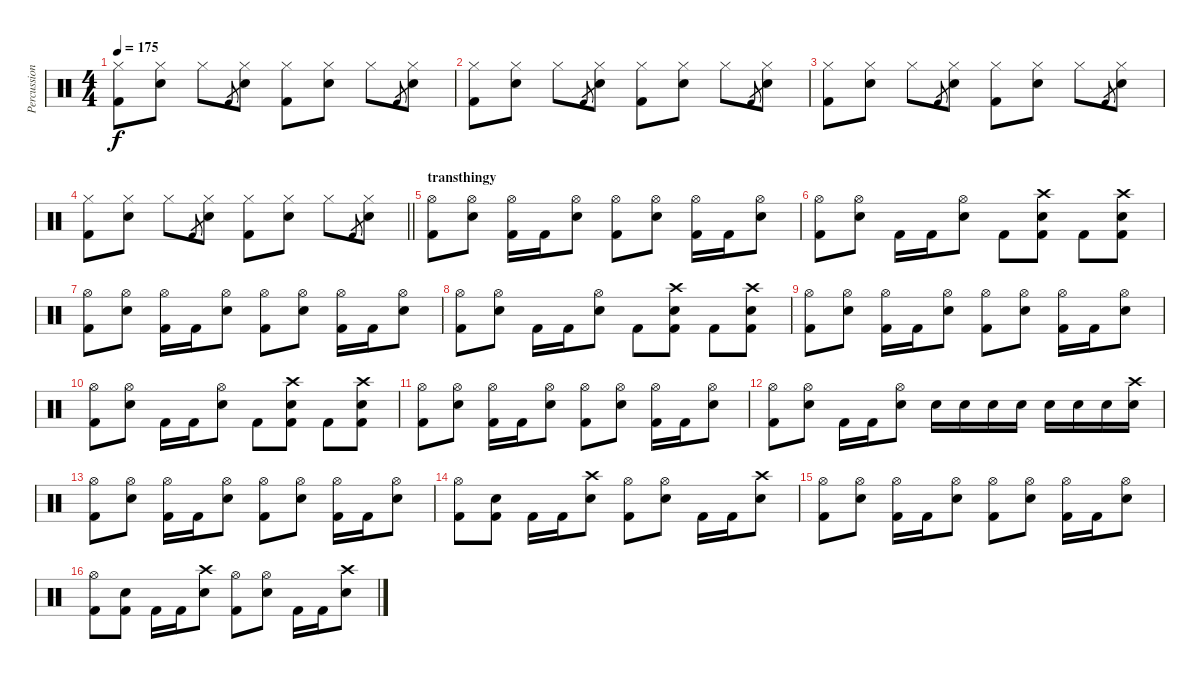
\track ("Percussion" "Percussion") {instrument percussion}
\staff {score}
\articulation defaults
\ts (4 4)
\tempo 175
\clef neutral
\ks c
("Hi-Hat (closed)" "Kick (hit) 2").8{dy f} ("Hi-Hat (closed)" "Electric Snare (hit)").8 "Hi-Hat (closed)".8 "Kick (hit) 2".8{gr} ("Hi-Hat (closed)" "Electric Snare (hit)").8 ("Hi-Hat (closed)" "Kick (hit) 2").8 ("Hi-Hat (closed)" "Electric Snare (hit)").8 "Hi-Hat (closed)".8 "Kick (hit) 2".8{gr} ("Hi-Hat (closed)" "Electric Snare (hit)").8 |
("Hi-Hat (closed)" "Kick (hit) 2").8 ("Hi-Hat (closed)" "Electric Snare (hit)").8 "Hi-Hat (closed)".8 "Kick (hit) 2".8{gr} ("Hi-Hat (closed)" "Electric Snare (hit)").8 ("Hi-Hat (closed)" "Kick (hit) 2").8 ("Hi-Hat (closed)" "Electric Snare (hit)").8 "Hi-Hat (closed)".8 "Kick (hit) 2".8{gr} ("Hi-Hat (closed)" "Electric Snare (hit)").8 |
("Hi-Hat (closed)" "Kick (hit) 2").8 ("Hi-Hat (closed)" "Electric Snare (hit)").8 "Hi-Hat (closed)".8 "Kick (hit) 2".8{gr} ("Hi-Hat (closed)" "Electric Snare (hit)").8 ("Hi-Hat (closed)" "Kick (hit) 2").8 ("Hi-Hat (closed)" "Electric Snare (hit)").8 "Hi-Hat (closed)".8 "Kick (hit) 2".8{gr} ("Hi-Hat (closed)" "Electric Snare (hit)").8 |
\barLineRight lightlight
("Hi-Hat (closed)" "Kick (hit) 2").8 ("Hi-Hat (closed)" "Electric Snare (hit)").8 "Hi-Hat (closed)".8 "Kick (hit) 2".8{gr} ("Hi-Hat (closed)" "Electric Snare (hit)").8 ("Hi-Hat (closed)" "Kick (hit) 2").8 ("Hi-Hat (closed)" "Electric Snare (hit)").8 "Hi-Hat (closed)".8 "Kick (hit) 2".8{gr} ("Hi-Hat (closed)" "Electric Snare (hit)").8 |
\section ("" "transthingy")
("Hi-Hat (open)" "Kick (hit) 2").8 ("Hi-Hat (open)" "Electric Snare (hit)").8 ("Hi-Hat (open)" "Kick (hit) 2").16 "Kick (hit) 2".16 ("Hi-Hat (open)" "Electric Snare (hit)").8 ("Hi-Hat (open)" "Kick (hit) 2").8 ("Hi-Hat (open)" "Electric Snare (hit)").8 ("Hi-Hat (open)" "Kick (hit) 2").16 "Kick (hit) 2".16 ("Hi-Hat (open)" "Electric Snare (hit)").8 |
("Hi-Hat (open)" "Kick (hit) 2").8 ("Hi-Hat (open)" "Electric Snare (hit)").8 "Kick (hit) 2".16 "Kick (hit) 2".16 ("Hi-Hat (open)" "Electric Snare (hit)").8 "Kick (hit) 2".8 ("Crash high (hit)" "Electric Snare (hit)" "Kick (hit) 2").8 "Kick (hit) 2".8 ("Crash high (hit)" "Electric Snare (hit)" "Kick (hit) 2").8 |
("Hi-Hat (open)" "Kick (hit) 2").8 ("Hi-Hat (open)" "Electric Snare (hit)").8 ("Hi-Hat (open)" "Kick (hit) 2").16 "Kick (hit) 2".16 ("Hi-Hat (open)" "Electric Snare (hit)").8 ("Hi-Hat (open)" "Kick (hit) 2").8 ("Hi-Hat (open)" "Electric Snare (hit)").8 ("Hi-Hat (open)" "Kick (hit) 2").16 "Kick (hit) 2".16 ("Hi-Hat (open)" "Electric Snare (hit)").8 |
("Hi-Hat (open)" "Kick (hit) 2").8 ("Hi-Hat (open)" "Electric Snare (hit)").8 "Kick (hit) 2".16 "Kick (hit) 2".16 ("Hi-Hat (open)" "Electric Snare (hit)").8 "Kick (hit) 2".8 ("Crash high (hit)" "Electric Snare (hit)" "Kick (hit) 2").8 "Kick (hit) 2".8 ("Crash high (hit)" "Electric Snare (hit)" "Kick (hit) 2").8 |
("Hi-Hat (open)" "Kick (hit) 2").8 ("Hi-Hat (open)" "Electric Snare (hit)").8 ("Hi-Hat (open)" "Kick (hit) 2").16 "Kick (hit) 2".16 ("Hi-Hat (open)" "Electric Snare (hit)").8 ("Hi-Hat (open)" "Kick (hit) 2").8 ("Hi-Hat (open)" "Electric Snare (hit)").8 ("Hi-Hat (open)" "Kick (hit) 2").16 "Kick (hit) 2".16 ("Hi-Hat (open)" "Electric Snare (hit)").8 |
("Hi-Hat (open)" "Kick (hit) 2").8 ("Hi-Hat (open)" "Electric Snare (hit)").8 "Kick (hit) 2".16 "Kick (hit) 2".16 ("Hi-Hat (open)" "Electric Snare (hit)").8 "Kick (hit) 2".8 ("Crash high (hit)" "Electric Snare (hit)" "Kick (hit) 2").8 "Kick (hit) 2".8 ("Crash high (hit)" "Electric Snare (hit)" "Kick (hit) 2").8 |
("Hi-Hat (open)" "Kick (hit) 2").8 ("Hi-Hat (open)" "Electric Snare (hit)").8 ("Hi-Hat (open)" "Kick (hit) 2").16 "Kick (hit) 2".16 ("Hi-Hat (open)" "Electric Snare (hit)").8 ("Hi-Hat (open)" "Kick (hit) 2").8 ("Hi-Hat (open)" "Electric Snare (hit)").8 ("Hi-Hat (open)" "Kick (hit) 2").16 "Kick (hit) 2".16 ("Hi-Hat (open)" "Electric Snare (hit)").8 |
("Hi-Hat (open)" "Kick (hit) 2").8 ("Hi-Hat (open)" "Electric Snare (hit)").8 "Kick (hit) 2".16 "Kick (hit) 2".16 ("Hi-Hat (open)" "Electric Snare (hit)").8 "Electric Snare (hit)".16 "Electric Snare (hit)".16 "Electric Snare (hit)".16 "Electric Snare (hit)".16 "Electric Snare (hit)".16 "Electric Snare (hit)".16 "Electric Snare (hit)".16 ("Crash high (hit)" "Electric Snare (hit)").16 |
("Hi-Hat (open)" "Kick (hit) 2").8 ("Hi-Hat (open)" "Electric Snare (hit)").8 ("Hi-Hat (open)" "Kick (hit) 2").16 "Kick (hit) 2".16 ("Hi-Hat (open)" "Electric Snare (hit)").8 ("Hi-Hat (open)" "Kick (hit) 2").8 ("Hi-Hat (open)" "Electric Snare (hit)").8 ("Hi-Hat (open)" "Kick (hit) 2").16 "Kick (hit) 2".16 ("Hi-Hat (open)" "Electric Snare (hit)").8 |
("Hi-Hat (open)" "Kick (hit) 2").8 ("Kick (hit) 2" "Electric Snare (hit)").8 "Kick (hit) 2".16 "Kick (hit) 2".16 ("Crash high (hit)" "Electric Snare (hit)").8 ("Hi-Hat (open)" "Kick (hit) 2").8 ("Hi-Hat (open)" "Electric Snare (hit)").8 "Kick (hit) 2".16 "Kick (hit) 2".16 ("Crash high (hit)" "Electric Snare (hit)").8 |
("Hi-Hat (open)" "Kick (hit) 2").8 ("Hi-Hat (open)" "Electric Snare (hit)").8 ("Hi-Hat (open)" "Kick (hit) 2").16 "Kick (hit) 2".16 ("Hi-Hat (open)" "Electric Snare (hit)").8 ("Hi-Hat (open)" "Kick (hit) 2").8 ("Hi-Hat (open)" "Electric Snare (hit)").8 ("Hi-Hat (open)" "Kick (hit) 2").16 "Kick (hit) 2".16 ("Hi-Hat (open)" "Electric Snare (hit)").8 |
("Hi-Hat (open)" "Kick (hit) 2").8 ("Kick (hit) 2" "Electric Snare (hit)").8 "Kick (hit) 2".16 "Kick (hit) 2".16 ("Crash high (hit)" "Electric Snare (hit)").8 ("Hi-Hat (open)" "Kick (hit) 2").8 ("Hi-Hat (open)" "Electric Snare (hit)").8 "Kick (hit) 2".16 "Kick (hit) 2".16 ("Crash high (hit)" "Electric Snare (hit)").8
